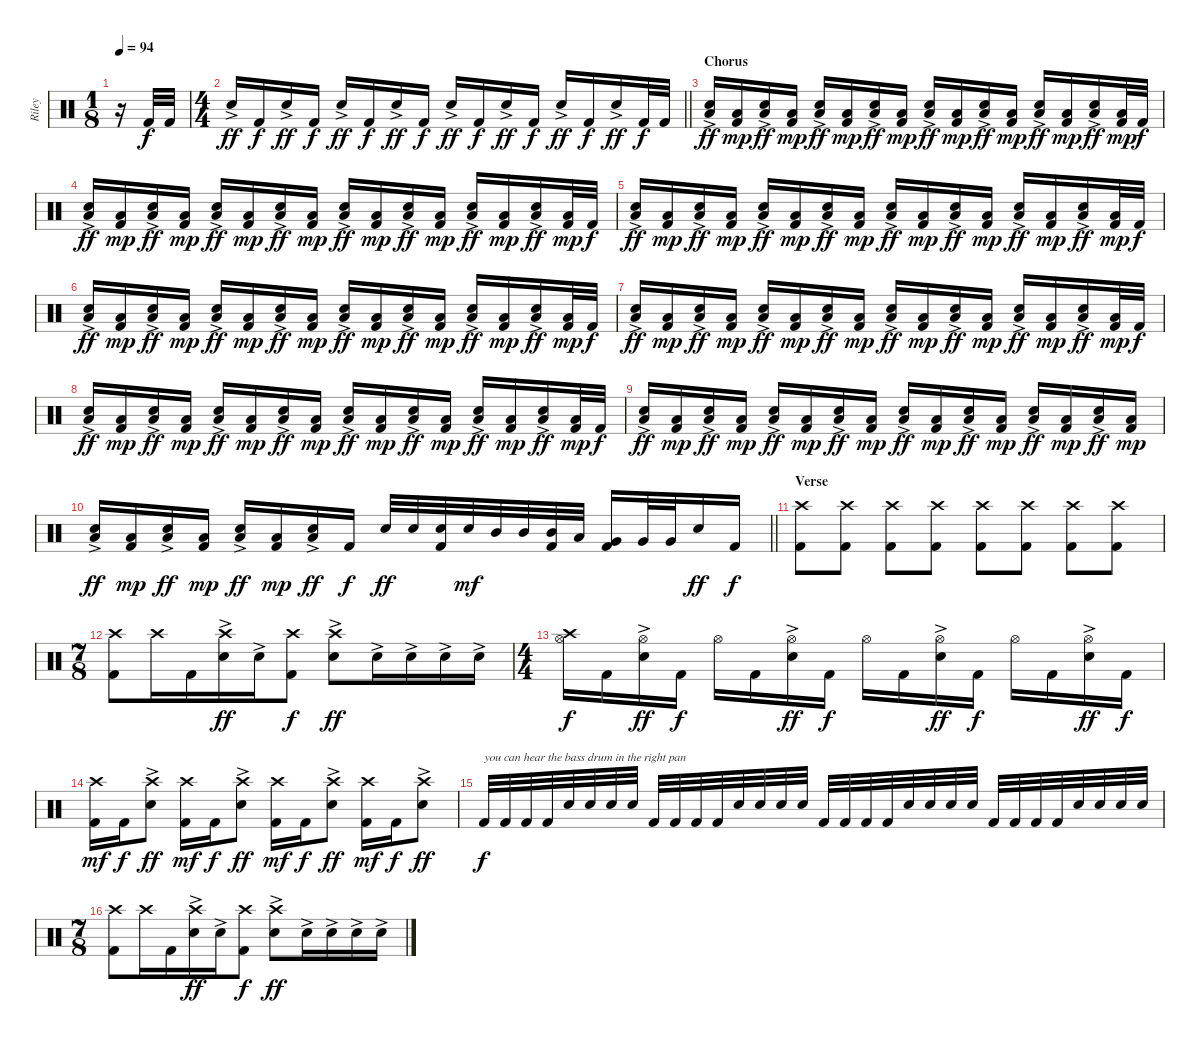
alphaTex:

\track ("Riley" "Riley") {instrument percussion}
\staff {score}
\articulation defaults
\ts (1 8)
\tempo 94
\clef neutral
\ks c
r.16{dy f} "Kick (hit) 2".32 "Kick (hit) 2".32 |
\ts (4 4)
\barLineRight lightlight "Electric Snare (hit)"{ac}.16{dy ff} "Kick (hit) 2".16{dy f} "Electric Snare (hit)"{ac}.16{dy ff} "Kick (hit) 2".16{dy f} "Electric Snare (hit)"{ac}.16{dy ff} "Kick (hit) 2".16{dy f} "Electric Snare (hit)"{ac}.16{dy ff} "Kick (hit) 2".16{dy f} "Electric Snare (hit)"{ac}.16{dy ff} "Kick (hit) 2".16{dy f} "Electric Snare (hit)"{ac}.16{dy ff} "Kick (hit) 2".16{dy f} "Electric Snare (hit)"{ac}.16{dy ff} "Kick (hit) 2".16{dy f} "Electric Snare (hit)"{ac}.16{dy ff} "Kick (hit) 2".32{dy f} "Kick (hit) 2".32
|
\section ("" "Chorus")
("Low Floor Tom (hit)" "Electric Snare (hit)"{ac}).16{dy ff} ("Low Floor Tom (hit)" "Kick (hit) 2").16{dy mp} ("Low Floor Tom (hit)" "Electric Snare (hit)"{ac}).16{dy ff} ("Low Floor Tom (hit)" "Kick (hit) 2").16{dy mp} ("Low Floor Tom (hit)" "Electric Snare (hit)"{ac}).16{dy ff} ("Low Floor Tom (hit)" "Kick (hit) 2").16{dy mp} ("Low Floor Tom (hit)" "Electric Snare (hit)"{ac}).16{dy ff} ("Low Floor Tom (hit)" "Kick (hit) 2").16{dy mp} ("Low Floor Tom (hit)" "Electric Snare (hit)"{ac}).16{dy ff} ("Low Floor Tom (hit)" "Kick (hit) 2").16{dy mp} ("Low Floor Tom (hit)" "Electric Snare (hit)"{ac}).16{dy ff} ("Low Floor Tom (hit)" "Kick (hit) 2").16{dy mp} ("Low Floor Tom (hit)" "Electric Snare (hit)"{ac}).16{dy ff} ("Low Floor Tom (hit)" "Kick (hit) 2").16{dy mp} ("Low Floor Tom (hit)" "Electric Snare (hit)"{ac}).16{dy ff} ("Low Floor Tom (hit)" "Kick (hit) 2").32{dy mp} "Kick (hit) 2".32{dy f} |
("Low Floor Tom (hit)" "Electric Snare (hit)"{ac}).16{dy ff} ("Low Floor Tom (hit)" "Kick (hit) 2").16{dy mp} ("Low Floor Tom (hit)" "Electric Snare (hit)"{ac}).16{dy ff} ("Low Floor Tom (hit)" "Kick (hit) 2").16{dy mp} ("Low Floor Tom (hit)" "Electric Snare (hit)"{ac}).16{dy ff} ("Low Floor Tom (hit)" "Kick (hit) 2").16{dy mp} ("Low Floor Tom (hit)" "Electric Snare (hit)"{ac}).16{dy ff} ("Low Floor Tom (hit)" "Kick (hit) 2").16{dy mp} ("Low Floor Tom (hit)" "Electric Snare (hit)"{ac}).16{dy ff} ("Low Floor Tom (hit)" "Kick (hit) 2").16{dy mp} ("Low Floor Tom (hit)" "Electric Snare (hit)"{ac}).16{dy ff} ("Low Floor Tom (hit)" "Kick (hit) 2").16{dy mp} ("Low Floor Tom (hit)" "Electric Snare (hit)"{ac}).16{dy ff} ("Low Floor Tom (hit)" "Kick (hit) 2").16{dy mp} ("Low Floor Tom (hit)" "Electric Snare (hit)"{ac}).16{dy ff} ("Low Floor Tom (hit)" "Kick (hit) 2").32{dy mp} "Kick (hit) 2".32{dy f} |
("Low Floor Tom (hit)" "Electric Snare (hit)"{ac}).16{dy ff} ("Low Floor Tom (hit)" "Kick (hit) 2").16{dy mp} ("Low Floor Tom (hit)" "Electric Snare (hit)"{ac}).16{dy ff} ("Low Floor Tom (hit)" "Kick (hit) 2").16{dy mp} ("Low Floor Tom (hit)" "Electric Snare (hit)"{ac}).16{dy ff} ("Low Floor Tom (hit)" "Kick (hit) 2").16{dy mp} ("Low Floor Tom (hit)" "Electric Snare (hit)"{ac}).16{dy ff} ("Low Floor Tom (hit)" "Kick (hit) 2").16{dy mp} ("Low Floor Tom (hit)" "Electric Snare (hit)"{ac}).16{dy ff} ("Low Floor Tom (hit)" "Kick (hit) 2").16{dy mp} ("Low Floor Tom (hit)" "Electric Snare (hit)"{ac}).16{dy ff} ("Low Floor Tom (hit)" "Kick (hit) 2").16{dy mp} ("Low Floor Tom (hit)" "Electric Snare (hit)"{ac}).16{dy ff} ("Low Floor Tom (hit)" "Kick (hit) 2").16{dy mp} ("Low Floor Tom (hit)" "Electric Snare (hit)"{ac}).16{dy ff} ("Low Floor Tom (hit)" "Kick (hit) 2").32{dy mp} "Kick (hit) 2".32{dy f} |
("Low Floor Tom (hit)" "Electric Snare (hit)"{ac}).16{dy ff} ("Low Floor Tom (hit)" "Kick (hit) 2").16{dy mp} ("Low Floor Tom (hit)" "Electric Snare (hit)"{ac}).16{dy ff} ("Low Floor Tom (hit)" "Kick (hit) 2").16{dy mp} ("Low Floor Tom (hit)" "Electric Snare (hit)"{ac}).16{dy ff} ("Low Floor Tom (hit)" "Kick (hit) 2").16{dy mp} ("Low Floor Tom (hit)" "Electric Snare (hit)"{ac}).16{dy ff} ("Low Floor Tom (hit)" "Kick (hit) 2").16{dy mp} ("Low Floor Tom (hit)" "Electric Snare (hit)"{ac}).16{dy ff} ("Low Floor Tom (hit)" "Kick (hit) 2").16{dy mp} ("Low Floor Tom (hit)" "Electric Snare (hit)"{ac}).16{dy ff} ("Low Floor Tom (hit)" "Kick (hit) 2").16{dy mp} ("Low Floor Tom (hit)" "Electric Snare (hit)"{ac}).16{dy ff} ("Low Floor Tom (hit)" "Kick (hit) 2").16{dy mp} ("Low Floor Tom (hit)" "Electric Snare (hit)"{ac}).16{dy ff} ("Low Floor Tom (hit)" "Kick (hit) 2").32{dy mp} "Kick (hit) 2".32{dy f} |
("Low Floor Tom (hit)" "Electric Snare (hit)"{ac}).16{dy ff} ("Low Floor Tom (hit)" "Kick (hit) 2").16{dy mp} ("Low Floor Tom (hit)" "Electric Snare (hit)"{ac}).16{dy ff} ("Low Floor Tom (hit)" "Kick (hit) 2").16{dy mp} ("Low Floor Tom (hit)" "Electric Snare (hit)"{ac}).16{dy ff} ("Low Floor Tom (hit)" "Kick (hit) 2").16{dy mp} ("Low Floor Tom (hit)" "Electric Snare (hit)"{ac}).16{dy ff} ("Low Floor Tom (hit)" "Kick (hit) 2").16{dy mp} ("Low Floor Tom (hit)" "Electric Snare (hit)"{ac}).16{dy ff} ("Low Floor Tom (hit)" "Kick (hit) 2").16{dy mp} ("Low Floor Tom (hit)" "Electric Snare (hit)"{ac}).16{dy ff} ("Low Floor Tom (hit)" "Kick (hit) 2").16{dy mp} ("Low Floor Tom (hit)" "Electric Snare (hit)"{ac}).16{dy ff} ("Low Floor Tom (hit)" "Kick (hit) 2").16{dy mp} ("Low Floor Tom (hit)" "Electric Snare (hit)"{ac}).16{dy ff} ("Low Floor Tom (hit)" "Kick (hit) 2").32{dy mp} "Kick (hit) 2".32{dy f} |
("Low Floor Tom (hit)" "Electric Snare (hit)"{ac}).16{dy ff} ("Low Floor Tom (hit)" "Kick (hit) 2").16{dy mp} ("Low Floor Tom (hit)" "Electric Snare (hit)"{ac}).16{dy ff} ("Low Floor Tom (hit)" "Kick (hit) 2").16{dy mp} ("Low Floor Tom (hit)" "Electric Snare (hit)"{ac}).16{dy ff} ("Low Floor Tom (hit)" "Kick (hit) 2").16{dy mp} ("Low Floor Tom (hit)" "Electric Snare (hit)"{ac}).16{dy ff} ("Low Floor Tom (hit)" "Kick (hit) 2").16{dy mp} ("Low Floor Tom (hit)" "Electric Snare (hit)"{ac}).16{dy ff} ("Low Floor Tom (hit)" "Kick (hit) 2").16{dy mp} ("Low Floor Tom (hit)" "Electric Snare (hit)"{ac}).16{dy ff} ("Low Floor Tom (hit)" "Kick (hit) 2").16{dy mp} ("Low Floor Tom (hit)" "Electric Snare (hit)"{ac}).16{dy ff} ("Low Floor Tom (hit)" "Kick (hit) 2").16{dy mp} ("Low Floor Tom (hit)" "Electric Snare (hit)"{ac}).16{dy ff} ("Low Floor Tom (hit)" "Kick (hit) 2").32{dy mp} "Kick (hit) 2".32{dy f} |
("Low Floor Tom (hit)" "Electric Snare (hit)"{ac}).16{dy ff} ("Low Floor Tom (hit)" "Kick (hit) 2").16{dy mp} ("Low Floor Tom (hit)" "Electric Snare (hit)"{ac}).16{dy ff} ("Low Floor Tom (hit)" "Kick (hit) 2").16{dy mp} ("Low Floor Tom (hit)" "Electric Snare (hit)"{ac}).16{dy ff} ("Low Floor Tom (hit)" "Kick (hit) 2").16{dy mp} ("Low Floor Tom (hit)" "Electric Snare (hit)"{ac}).16{dy ff} ("Low Floor Tom (hit)" "Kick (hit) 2").16{dy mp} ("Low Floor Tom (hit)" "Electric Snare (hit)"{ac}).16{dy ff} ("Low Floor Tom (hit)" "Kick (hit) 2").16{dy mp} ("Low Floor Tom (hit)" "Electric Snare (hit)"{ac}).16{dy ff} ("Low Floor Tom (hit)" "Kick (hit) 2").16{dy mp} ("Low Floor Tom (hit)" "Electric Snare (hit)"{ac}).16{dy ff} ("Low Floor Tom (hit)" "Kick (hit) 2").16{dy mp} ("Low Floor Tom (hit)" "Electric Snare (hit)"{ac}).16{dy ff} ("Low Floor Tom (hit)" "Kick (hit) 2").16{dy mp} |
\barLineRight lightlight
("Low Floor Tom (hit)" "Electric Snare (hit)"{ac}).16{dy ff} ("Low Floor Tom (hit)" "Kick (hit) 2").16{dy mp} ("Low Floor Tom (hit)" "Electric Snare (hit)"{ac}).16{dy ff} ("Low Floor Tom (hit)" "Kick (hit) 2").16{dy mp} ("Low Floor Tom (hit)" "Electric Snare (hit)"{ac}).16{dy ff} ("Low Floor Tom (hit)" "Kick (hit) 2").16{dy mp} ("Low Floor Tom (hit)" "Electric Snare (hit)"{ac}).16{dy ff} "Kick (hit) 2".16{dy f} "Electric Snare (hit)".32{dy ff} "Electric Snare (hit)".32 ("Electric Snare (hit)" "Kick (hit) 2").32 "Electric Snare (hit)".32{dy mf} "Mid Tom (hit)".32 "Mid Tom (hit)".32 ("Mid Tom (hit)" "Kick (hit) 2").32 "Low Tom (hit)".32 ("Very Low Tom (hit)" "Kick (hit) 2").16 "Very Low Tom (hit)".32 "Very Low Tom (hit)".32 "Electric Snare (hit)".16{dy ff} "Kick (hit) 2".16{dy f} |
\section ("" "Verse")
("Crash high (hit)" "Kick (hit) 2").8 ("Crash high (hit)" "Kick (hit) 2").8 ("Crash high (hit)" "Kick (hit) 2").8 ("Crash high (hit)" "Kick (hit) 2").8 ("Crash high (hit)" "Kick (hit) 2").8 ("Crash high (hit)" "Kick (hit) 2").8 ("Crash high (hit)" "Kick (hit) 2").8 ("Crash high (hit)" "Kick (hit) 2").8 |
\ts (7 8)
("Crash high (hit)" "Kick (hit) 2").8 "Crash high (hit)".16 "Kick (hit) 2".16 ("Crash high (hit)" "Electric Snare (hit)"{ac}).16{dy ff} "Electric Snare (hit)"{ac}.16 ("Crash high (hit)" "Kick (hit) 2").8{dy f} ("Crash high (hit)" "Electric Snare (hit)"{ac}).8{dy ff} "Electric Snare (hit)"{ac}.16 "Electric Snare (hit)"{ac}.16 "Electric Snare (hit)"{ac}.16 "Electric Snare (hit)"{ac}.16 |
\ts (4 4)
("Crash high (hit)" "Hi-Hat (open)").16{dy f} "Kick (hit) 2".16 ("Hi-Hat (open)" "Electric Snare (hit)"{ac}).16{dy ff} "Kick (hit) 2".16{dy f} "Hi-Hat (open)".16 "Kick (hit) 2".16 ("Hi-Hat (open)" "Electric Snare (hit)"{ac}).16{dy ff} "Kick (hit) 2".16{dy f} "Hi-Hat (open)".16 "Kick (hit) 2".16 ("Hi-Hat (open)" "Electric Snare (hit)"{ac}).16{dy ff} "Kick (hit) 2".16{dy f} "Hi-Hat (open)".16 "Kick (hit) 2".16 ("Hi-Hat (open)" "Electric Snare (hit)"{ac}).16{dy ff} "Kick (hit) 2".16{dy f} |
("Crash high (hit)" "Kick (hit) 2").16{dy mf} "Kick (hit) 2".16{dy f} ("Crash high (hit)" "Electric Snare (hit)"{ac}).8{dy ff} ("Crash high (hit)" "Kick (hit) 2").16{dy mf} "Kick (hit) 2".16{dy f} ("Crash high (hit)" "Electric Snare (hit)"{ac}).8{dy ff} ("Crash high (hit)" "Kick (hit) 2").16{dy mf} "Kick (hit) 2".16{dy f} ("Crash high (hit)" "Electric Snare (hit)"{ac}).8{dy ff} ("Crash high (hit)" "Kick (hit) 2").16{dy mf} "Kick (hit) 2".16{dy f} ("Crash high (hit)" "Electric Snare (hit)"{ac}).8{dy ff} |
"Kick (hit) 2".32{txt "you can hear the bass drum in the right pan" dy f} "Kick (hit) 2".32 "Kick (hit) 2".32 "Kick (hit) 2".32 "Electric Snare (hit)".32 "Electric Snare (hit)".32 "Electric Snare (hit)".32 "Electric Snare (hit)".32 "Kick (hit) 2".32 "Kick (hit) 2".32 "Kick (hit) 2".32 "Kick (hit) 2".32 "Electric Snare (hit)".32 "Electric Snare (hit)".32 "Electric Snare (hit)".32 "Electric Snare (hit)".32 "Kick (hit) 2".32 "Kick (hit) 2".32 "Kick (hit) 2".32 "Kick (hit) 2".32 "Electric Snare (hit)".32 "Electric Snare (hit)".32 "Electric Snare (hit)".32 "Electric Snare (hit)".32 "Kick (hit) 2".32 "Kick (hit) 2".32 "Kick (hit) 2".32 "Kick (hit) 2".32 "Electric Snare (hit)".32 "Electric Snare (hit)".32 "Electric Snare (hit)".32 "Electric Snare (hit)".32 |
\ts (7 8)
("Crash high (hit)" "Kick (hit) 2").8 "Crash high (hit)".16 "Kick (hit) 2".16 ("Crash high (hit)" "Electric Snare (hit)"{ac}).16{dy ff} "Electric Snare (hit)"{ac}.16 ("Crash high (hit)" "Kick (hit) 2").8{dy f} ("Crash high (hit)" "Electric Snare (hit)"{ac}).8{dy ff} "Electric Snare (hit)"{ac}.16 "Electric Snare (hit)"{ac}.16 "Electric Snare (hit)"{ac}.16 "Electric Snare (hit)"{ac}.16
